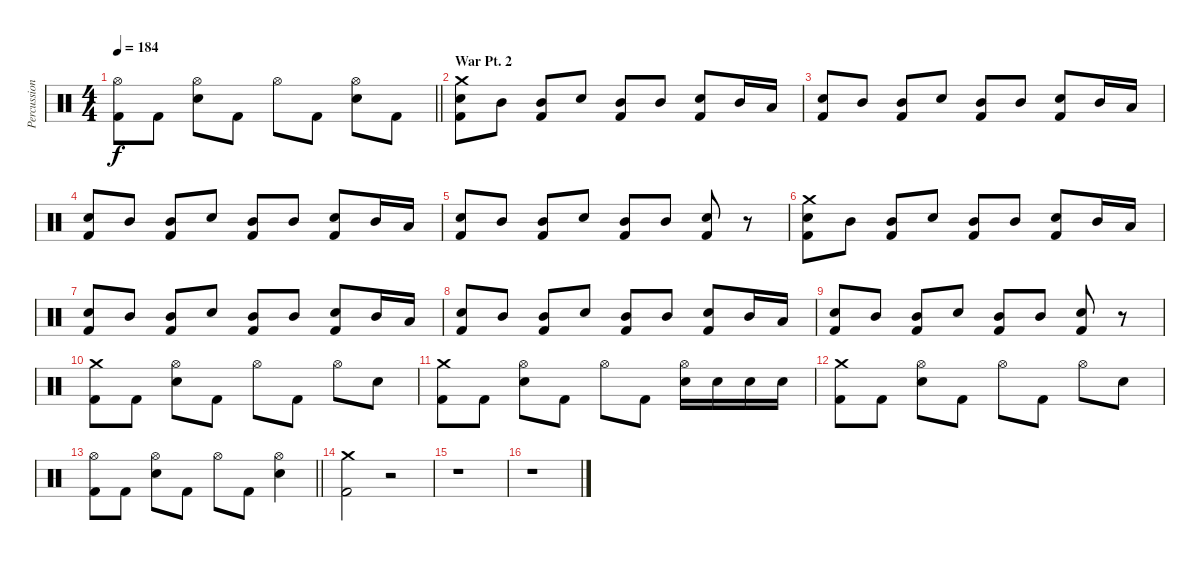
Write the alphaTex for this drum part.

\track ("Percussion" "Percussion") {instrument percussion}
\staff {score}
\articulation defaults
\ts (4 4)
\tempo 184
\clef neutral
\barLineRight lightlight
\ks c
("Hi-Hat (open)" "Kick (hit) 2").8{dy f} "Kick (hit) 2".8 ("Hi-Hat (open)" "Electric Snare (hit)").8 "Kick (hit) 2".8 "Hi-Hat (open)".8 "Kick (hit) 2".8 ("Hi-Hat (open)" "Electric Snare (hit)").8 "Kick (hit) 2".8 |
\section ("" "War Pt. 2")
("Crash medium (hit)" "Electric Snare (hit)" "Kick (hit) 2").8 "Mid Tom (hit)".8 ("Mid Tom (hit)" "Kick (hit) 2").8 "Electric Snare (hit)".8 ("Mid Tom (hit)" "Kick (hit) 2").8 "Mid Tom (hit)".8 ("Electric Snare (hit)" "Kick (hit) 2").8 "Mid Tom (hit)".16 "Low Tom (hit)".16 |
("Electric Snare (hit)" "Kick (hit) 2").8 "Mid Tom (hit)".8 ("Mid Tom (hit)" "Kick (hit) 2").8 "Electric Snare (hit)".8 ("Mid Tom (hit)" "Kick (hit) 2").8 "Mid Tom (hit)".8 ("Electric Snare (hit)" "Kick (hit) 2").8 "Mid Tom (hit)".16 "Low Tom (hit)".16 |
("Electric Snare (hit)" "Kick (hit) 2").8 "Mid Tom (hit)".8 ("Mid Tom (hit)" "Kick (hit) 2").8 "Electric Snare (hit)".8 ("Mid Tom (hit)" "Kick (hit) 2").8 "Mid Tom (hit)".8 ("Electric Snare (hit)" "Kick (hit) 2").8 "Mid Tom (hit)".16 "Low Tom (hit)".16 |
("Electric Snare (hit)" "Kick (hit) 2").8 "Mid Tom (hit)".8 ("Mid Tom (hit)" "Kick (hit) 2").8 "Electric Snare (hit)".8 ("Mid Tom (hit)" "Kick (hit) 2").8 "Mid Tom (hit)".8 ("Electric Snare (hit)" "Kick (hit) 2").8 r.8 |
("Crash medium (hit)" "Electric Snare (hit)" "Kick (hit) 2").8 "Mid Tom (hit)".8 ("Mid Tom (hit)" "Kick (hit) 2").8 "Electric Snare (hit)".8 ("Mid Tom (hit)" "Kick (hit) 2").8 "Mid Tom (hit)".8 ("Electric Snare (hit)" "Kick (hit) 2").8 "Mid Tom (hit)".16 "Low Tom (hit)".16 |
("Electric Snare (hit)" "Kick (hit) 2").8 "Mid Tom (hit)".8 ("Mid Tom (hit)" "Kick (hit) 2").8 "Electric Snare (hit)".8 ("Mid Tom (hit)" "Kick (hit) 2").8 "Mid Tom (hit)".8 ("Electric Snare (hit)" "Kick (hit) 2").8 "Mid Tom (hit)".16 "Low Tom (hit)".16 |
("Electric Snare (hit)" "Kick (hit) 2").8 "Mid Tom (hit)".8 ("Mid Tom (hit)" "Kick (hit) 2").8 "Electric Snare (hit)".8 ("Mid Tom (hit)" "Kick (hit) 2").8 "Mid Tom (hit)".8 ("Electric Snare (hit)" "Kick (hit) 2").8 "Mid Tom (hit)".16 "Low Tom (hit)".16 |
("Electric Snare (hit)" "Kick (hit) 2").8 "Mid Tom (hit)".8 ("Mid Tom (hit)" "Kick (hit) 2").8 "Electric Snare (hit)".8 ("Mid Tom (hit)" "Kick (hit) 2").8 "Mid Tom (hit)".8 ("Electric Snare (hit)" "Kick (hit) 2").8 r.8 |
("Crash medium (hit)" "Kick (hit) 2").8 "Kick (hit) 2".8 ("Hi-Hat (open)" "Electric Snare (hit)").8 "Kick (hit) 2".8 "Hi-Hat (open)".8 "Kick (hit) 2".8 "Hi-Hat (open)".8 "Electric Snare (hit)".8 |
("Crash medium (hit)" "Kick (hit) 2").8 "Kick (hit) 2".8 ("Hi-Hat (open)" "Electric Snare (hit)").8 "Kick (hit) 2".8 "Hi-Hat (open)".8 "Kick (hit) 2".8 ("Hi-Hat (open)" "Electric Snare (hit)").16 "Electric Snare (hit)".16 "Electric Snare (hit)".16 "Electric Snare (hit)".16 |
("Crash medium (hit)" "Kick (hit) 2").8 "Kick (hit) 2".8 ("Hi-Hat (open)" "Electric Snare (hit)").8 "Kick (hit) 2".8 "Hi-Hat (open)".8 "Kick (hit) 2".8 "Hi-Hat (open)".8 "Electric Snare (hit)".8 |
\barLineRight lightlight
("Hi-Hat (open)" "Kick (hit) 2").8 "Kick (hit) 2".8 ("Hi-Hat (open)" "Electric Snare (hit)").8 "Kick (hit) 2".8 "Hi-Hat (open)".8 "Kick (hit) 2".8 ("Hi-Hat (open)" "Electric Snare (hit)").4 |
("Crash medium (hit)" "Kick (hit) 2").2 r.2 |
r.1 |
r.1
